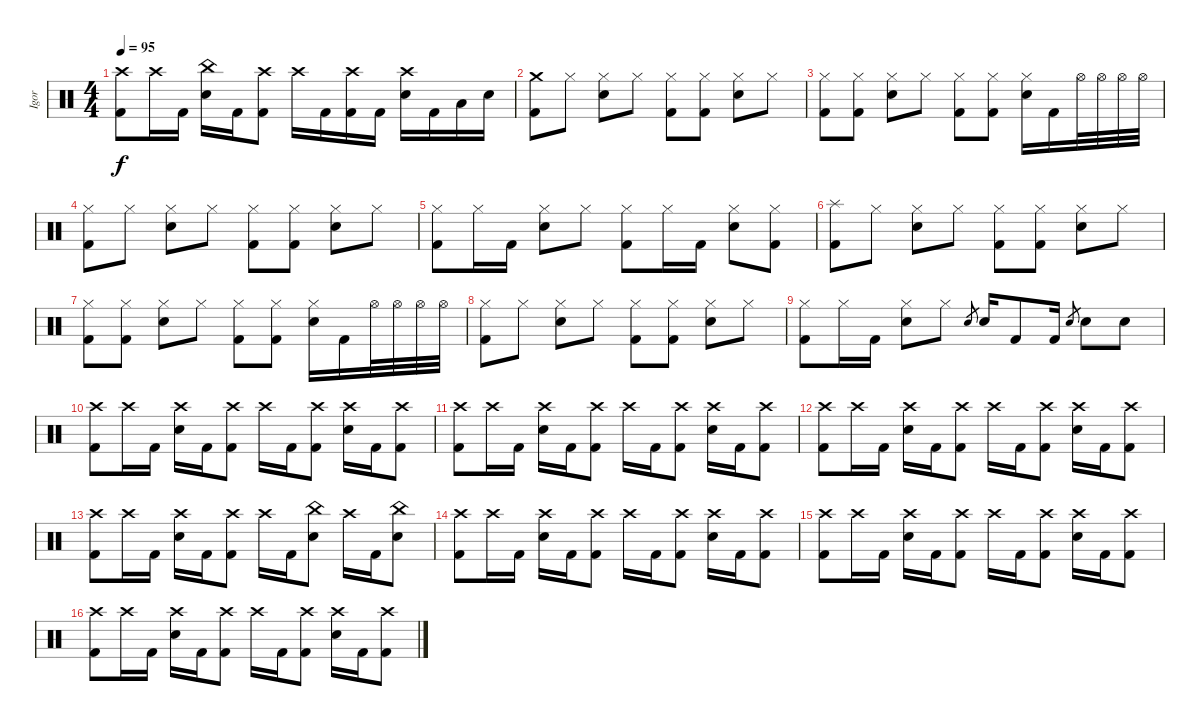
\track ("Igor" "Igor") {instrument percussion}
\staff {score}
\articulation defaults
\ts (4 4)
\tempo 95
\clef neutral
\ks c
("Crash high (hit)" "Kick (hit) 2").8{dy f} "Crash high (hit)".16 "Kick (hit) 2".16 ("China (hit)" "Electric Snare (hit)").16 "Kick (hit) 2".16 ("Crash high (hit)" "Kick (hit) 2").8 "Crash high (hit)".16 "Kick (hit) 2".16 ("Crash high (hit)" "Kick (hit) 2").16 "Kick (hit) 2".16 ("Crash high (hit)" "Electric Snare (hit)").16 "Kick (hit) 2".16 "Low Tom (hit)".16 "Electric Snare (hit)".16 |
("Crash medium (hit)" "Kick (hit) 2").8 "Hi-Hat (closed)".8 ("Hi-Hat (closed)" "Electric Snare (hit)").8 "Hi-Hat (closed)".8 ("Hi-Hat (closed)" "Kick (hit) 2").8 ("Hi-Hat (closed)" "Kick (hit) 2").8 ("Hi-Hat (closed)" "Electric Snare (hit)").8 "Hi-Hat (closed)".8 |
("Hi-Hat (closed)" "Kick (hit) 2").8 ("Hi-Hat (closed)" "Kick (hit) 2").8 ("Hi-Hat (closed)" "Electric Snare (hit)").8 "Hi-Hat (closed)".8 ("Hi-Hat (closed)" "Kick (hit) 2").8 ("Hi-Hat (closed)" "Kick (hit) 2").8 ("Hi-Hat (closed)" "Electric Snare (hit)").16 "Kick (hit) 2".16 "Hi-Hat (open)".32 "Hi-Hat (open)".32 "Hi-Hat (open)".32 "Hi-Hat (open)".32 |
("Hi-Hat (closed)" "Kick (hit) 2").8 "Hi-Hat (closed)".8 ("Hi-Hat (closed)" "Electric Snare (hit)").8 "Hi-Hat (closed)".8 ("Hi-Hat (closed)" "Kick (hit) 2").8 ("Hi-Hat (closed)" "Kick (hit) 2").8 ("Hi-Hat (closed)" "Electric Snare (hit)").8 "Hi-Hat (closed)".8 |
("Hi-Hat (closed)" "Kick (hit) 2").8 "Hi-Hat (closed)".16 "Kick (hit) 2".16 ("Hi-Hat (closed)" "Electric Snare (hit)").8 "Hi-Hat (closed)".8 ("Hi-Hat (closed)" "Kick (hit) 2").8 "Hi-Hat (closed)".16 "Kick (hit) 2".16 ("Hi-Hat (closed)" "Electric Snare (hit)").8 ("Hi-Hat (closed)" "Kick (hit) 2").8 |
("Splash (hit)" "Kick (hit) 2").8 "Hi-Hat (closed)".8 ("Hi-Hat (closed)" "Electric Snare (hit)").8 "Hi-Hat (closed)".8 ("Hi-Hat (closed)" "Kick (hit) 2").8 ("Hi-Hat (closed)" "Kick (hit) 2").8 ("Hi-Hat (closed)" "Electric Snare (hit)").8 "Hi-Hat (closed)".8 |
("Hi-Hat (closed)" "Kick (hit) 2").8 ("Hi-Hat (closed)" "Kick (hit) 2").8 ("Hi-Hat (closed)" "Electric Snare (hit)").8 "Hi-Hat (closed)".8 ("Hi-Hat (closed)" "Kick (hit) 2").8 ("Hi-Hat (closed)" "Kick (hit) 2").8 ("Hi-Hat (closed)" "Electric Snare (hit)").16 "Kick (hit) 2".16 "Hi-Hat (open)".32 "Hi-Hat (open)".32 "Hi-Hat (open)".32 "Hi-Hat (open)".32 |
("Hi-Hat (closed)" "Kick (hit) 2").8 "Hi-Hat (closed)".8 ("Hi-Hat (closed)" "Electric Snare (hit)").8 "Hi-Hat (closed)".8 ("Hi-Hat (closed)" "Kick (hit) 2").8 ("Hi-Hat (closed)" "Kick (hit) 2").8 ("Hi-Hat (closed)" "Electric Snare (hit)").8 "Hi-Hat (closed)".8 |
("Hi-Hat (closed)" "Kick (hit) 2").8 "Hi-Hat (closed)".16 "Kick (hit) 2".16 ("Hi-Hat (closed)" "Electric Snare (hit)").8 "Hi-Hat (closed)".8 "Electric Snare (hit)".8{gr} "Electric Snare (hit)".16 "Kick (hit) 2".8 "Kick (hit) 2".16 "Electric Snare (hit)".8{gr} "Electric Snare (hit)".8 "Electric Snare (hit)".8 |
("Crash high (hit)" "Kick (hit) 2").8 "Crash high (hit)".16 "Kick (hit) 2".16 ("Crash high (hit)" "Electric Snare (hit)").16 "Kick (hit) 2".16 ("Crash high (hit)" "Kick (hit) 2").8 "Crash high (hit)".16 "Kick (hit) 2".16 ("Crash high (hit)" "Kick (hit) 2").8 ("Crash high (hit)" "Electric Snare (hit)").16 "Kick (hit) 2".16 ("Crash high (hit)" "Kick (hit) 2").8 |
("Crash high (hit)" "Kick (hit) 2").8 "Crash high (hit)".16 "Kick (hit) 2".16 ("Crash high (hit)" "Electric Snare (hit)").16 "Kick (hit) 2".16 ("Crash high (hit)" "Kick (hit) 2").8 "Crash high (hit)".16 "Kick (hit) 2".16 ("Crash high (hit)" "Kick (hit) 2").8 ("Crash high (hit)" "Electric Snare (hit)").16 "Kick (hit) 2".16 ("Crash high (hit)" "Kick (hit) 2").8 |
("Crash high (hit)" "Kick (hit) 2").8 "Crash high (hit)".16 "Kick (hit) 2".16 ("Crash high (hit)" "Electric Snare (hit)").16 "Kick (hit) 2".16 ("Crash high (hit)" "Kick (hit) 2").8 "Crash high (hit)".16 "Kick (hit) 2".16 ("Crash high (hit)" "Kick (hit) 2").8 ("Crash high (hit)" "Electric Snare (hit)").16 "Kick (hit) 2".16 ("Crash high (hit)" "Kick (hit) 2").8 |
("Crash high (hit)" "Kick (hit) 2").8 "Crash high (hit)".16 "Kick (hit) 2".16 ("Crash high (hit)" "Electric Snare (hit)").16 "Kick (hit) 2".16 ("Crash high (hit)" "Kick (hit) 2").8 "Crash high (hit)".16 "Kick (hit) 2".16 ("China (hit)" "Electric Snare (hit)").8 "Crash high (hit)".16 "Kick (hit) 2".16 ("China (hit)" "Electric Snare (hit)").8 |
("Crash high (hit)" "Kick (hit) 2").8 "Crash high (hit)".16 "Kick (hit) 2".16 ("Crash high (hit)" "Electric Snare (hit)").16 "Kick (hit) 2".16 ("Crash high (hit)" "Kick (hit) 2").8 "Crash high (hit)".16 "Kick (hit) 2".16 ("Crash high (hit)" "Kick (hit) 2").8 ("Crash high (hit)" "Electric Snare (hit)").16 "Kick (hit) 2".16 ("Crash high (hit)" "Kick (hit) 2").8 |
("Crash high (hit)" "Kick (hit) 2").8 "Crash high (hit)".16 "Kick (hit) 2".16 ("Crash high (hit)" "Electric Snare (hit)").16 "Kick (hit) 2".16 ("Crash high (hit)" "Kick (hit) 2").8 "Crash high (hit)".16 "Kick (hit) 2".16 ("Crash high (hit)" "Kick (hit) 2").8 ("Crash high (hit)" "Electric Snare (hit)").16 "Kick (hit) 2".16 ("Crash high (hit)" "Kick (hit) 2").8 |
("Crash high (hit)" "Kick (hit) 2").8 "Crash high (hit)".16 "Kick (hit) 2".16 ("Crash high (hit)" "Electric Snare (hit)").16 "Kick (hit) 2".16 ("Crash high (hit)" "Kick (hit) 2").8 "Crash high (hit)".16 "Kick (hit) 2".16 ("Crash high (hit)" "Kick (hit) 2").8 ("Crash high (hit)" "Electric Snare (hit)").16 "Kick (hit) 2".16 ("Crash high (hit)" "Kick (hit) 2").8
